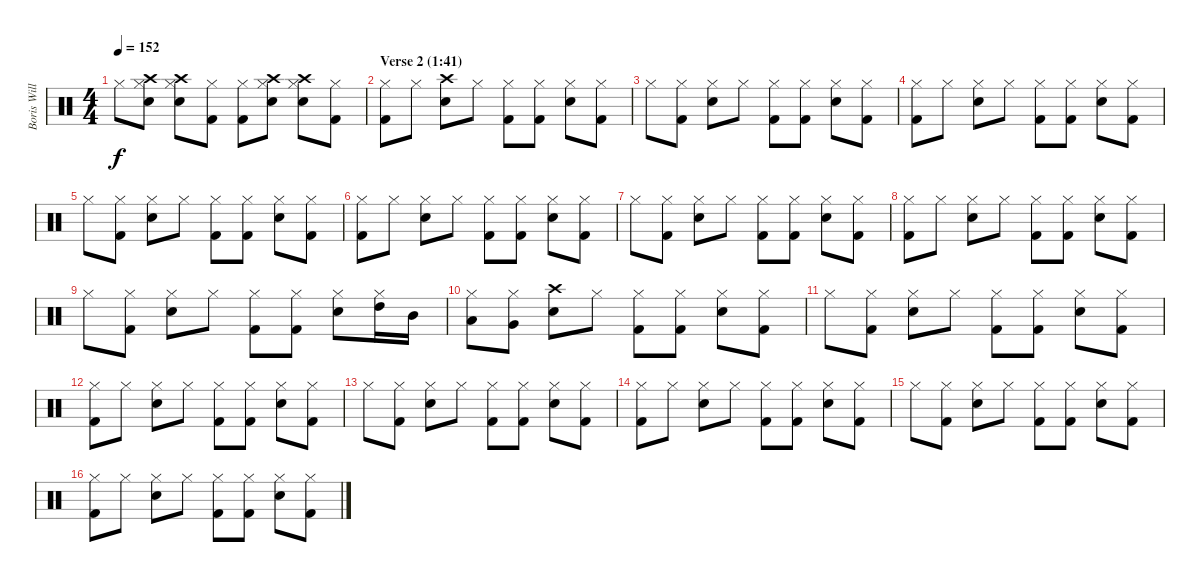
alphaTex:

\track ("Boris Williams (drums)" "Boris Will") {instrument percussion}
\staff {score}
\articulation defaults
\ts (4 4)
\tempo 152
\clef neutral
\ks c "Hi-Hat (closed)".8{dy f}
("Crash high (hit)" "Snare (hit) 2" "Hi-Hat (closed)").8 ("Crash high (hit)" "Snare (hit) 2" "Hi-Hat (closed)").8 ("Kick (hit) 2" "Hi-Hat (closed)").8 ("Kick (hit) 2" "Hi-Hat (closed)").8 ("Crash high (hit)" "Snare (hit) 2" "Hi-Hat (closed)").8 ("Crash high (hit)" "Snare (hit) 2" "Hi-Hat (closed)").8 ("Kick (hit) 2" "Hi-Hat (closed)").8 |
\section ("" "Verse 2 (1:41)")
("Kick (hit) 2" "Hi-Hat (closed)").8 "Hi-Hat (closed)".8 ("Snare (hit) 2" "Crash high (hit)").8 "Hi-Hat (closed)".8 ("Kick (hit) 2" "Hi-Hat (closed)").8 ("Kick (hit) 2" "Hi-Hat (closed)").8 ("Snare (hit) 2" "Hi-Hat (closed)").8 ("Kick (hit) 2" "Hi-Hat (closed)").8 |
"Hi-Hat (closed)".8 ("Kick (hit) 2" "Hi-Hat (closed)").8 ("Snare (hit) 2" "Hi-Hat (closed)").8 "Hi-Hat (closed)".8 ("Kick (hit) 2" "Hi-Hat (closed)").8 ("Kick (hit) 2" "Hi-Hat (closed)").8 ("Snare (hit) 2" "Hi-Hat (closed)").8 ("Kick (hit) 2" "Hi-Hat (closed)").8 |
("Kick (hit) 2" "Hi-Hat (closed)").8 "Hi-Hat (closed)".8 ("Snare (hit) 2" "Hi-Hat (closed)").8 "Hi-Hat (closed)".8 ("Kick (hit) 2" "Hi-Hat (closed)").8 ("Kick (hit) 2" "Hi-Hat (closed)").8 ("Snare (hit) 2" "Hi-Hat (closed)").8 ("Kick (hit) 2" "Hi-Hat (closed)").8 |
"Hi-Hat (closed)".8 ("Kick (hit) 2" "Hi-Hat (closed)").8 ("Snare (hit) 2" "Hi-Hat (closed)").8 "Hi-Hat (closed)".8 ("Kick (hit) 2" "Hi-Hat (closed)").8 ("Kick (hit) 2" "Hi-Hat (closed)").8 ("Snare (hit) 2" "Hi-Hat (closed)").8 ("Kick (hit) 2" "Hi-Hat (closed)").8 |
("Kick (hit) 2" "Hi-Hat (closed)").8 "Hi-Hat (closed)".8 ("Snare (hit) 2" "Hi-Hat (closed)").8 "Hi-Hat (closed)".8 ("Kick (hit) 2" "Hi-Hat (closed)").8 ("Kick (hit) 2" "Hi-Hat (closed)").8 ("Snare (hit) 2" "Hi-Hat (closed)").8 ("Kick (hit) 2" "Hi-Hat (closed)").8 |
"Hi-Hat (closed)".8 ("Kick (hit) 2" "Hi-Hat (closed)").8 ("Snare (hit) 2" "Hi-Hat (closed)").8 "Hi-Hat (closed)".8 ("Kick (hit) 2" "Hi-Hat (closed)").8 ("Kick (hit) 2" "Hi-Hat (closed)").8 ("Snare (hit) 2" "Hi-Hat (closed)").8 ("Kick (hit) 2" "Hi-Hat (closed)").8 |
("Kick (hit) 2" "Hi-Hat (closed)").8 "Hi-Hat (closed)".8 ("Snare (hit) 2" "Hi-Hat (closed)").8 "Hi-Hat (closed)".8 ("Kick (hit) 2" "Hi-Hat (closed)").8 ("Kick (hit) 2" "Hi-Hat (closed)").8 ("Snare (hit) 2" "Hi-Hat (closed)").8 ("Kick (hit) 2" "Hi-Hat (closed)").8 |
"Hi-Hat (closed)".8 ("Kick (hit) 2" "Hi-Hat (closed)").8 ("Snare (hit) 2" "Hi-Hat (closed)").8 "Hi-Hat (closed)".8 ("Kick (hit) 2" "Hi-Hat (closed)").8 ("Kick (hit) 2" "Hi-Hat (closed)").8 ("Snare (hit) 2" "Hi-Hat (closed)").8 ("High Tom (hit)" "Hi-Hat (closed)").16 "Mid Tom (hit)".16 |
("Low Tom (hit)" "Hi-Hat (closed)").8 ("Very Low Tom (hit)" "Hi-Hat (closed)").8 ("Snare (hit) 2" "Crash high (hit)").8 "Hi-Hat (closed)".8 ("Kick (hit) 2" "Hi-Hat (closed)").8 ("Kick (hit) 2" "Hi-Hat (closed)").8 ("Snare (hit) 2" "Hi-Hat (closed)").8 ("Kick (hit) 2" "Hi-Hat (closed)").8 |
"Hi-Hat (closed)".8 ("Kick (hit) 2" "Hi-Hat (closed)").8 ("Snare (hit) 2" "Hi-Hat (closed)").8 "Hi-Hat (closed)".8 ("Kick (hit) 2" "Hi-Hat (closed)").8 ("Kick (hit) 2" "Hi-Hat (closed)").8 ("Snare (hit) 2" "Hi-Hat (closed)").8 ("Kick (hit) 2" "Hi-Hat (closed)").8 |
("Kick (hit) 2" "Hi-Hat (closed)").8 "Hi-Hat (closed)".8 ("Snare (hit) 2" "Hi-Hat (closed)").8 "Hi-Hat (closed)".8 ("Kick (hit) 2" "Hi-Hat (closed)").8 ("Kick (hit) 2" "Hi-Hat (closed)").8 ("Snare (hit) 2" "Hi-Hat (closed)").8 ("Kick (hit) 2" "Hi-Hat (closed)").8 |
"Hi-Hat (closed)".8 ("Kick (hit) 2" "Hi-Hat (closed)").8 ("Snare (hit) 2" "Hi-Hat (closed)").8 "Hi-Hat (closed)".8 ("Kick (hit) 2" "Hi-Hat (closed)").8 ("Kick (hit) 2" "Hi-Hat (closed)").8 ("Snare (hit) 2" "Hi-Hat (closed)").8 ("Kick (hit) 2" "Hi-Hat (closed)").8 |
("Kick (hit) 2" "Hi-Hat (closed)").8 "Hi-Hat (closed)".8 ("Snare (hit) 2" "Hi-Hat (closed)").8 "Hi-Hat (closed)".8 ("Kick (hit) 2" "Hi-Hat (closed)").8 ("Kick (hit) 2" "Hi-Hat (closed)").8 ("Snare (hit) 2" "Hi-Hat (closed)").8 ("Kick (hit) 2" "Hi-Hat (closed)").8 |
"Hi-Hat (closed)".8 ("Kick (hit) 2" "Hi-Hat (closed)").8 ("Snare (hit) 2" "Hi-Hat (closed)").8 "Hi-Hat (closed)".8 ("Kick (hit) 2" "Hi-Hat (closed)").8 ("Kick (hit) 2" "Hi-Hat (closed)").8 ("Snare (hit) 2" "Hi-Hat (closed)").8 ("Kick (hit) 2" "Hi-Hat (closed)").8 |
("Kick (hit) 2" "Hi-Hat (closed)").8 "Hi-Hat (closed)".8 ("Snare (hit) 2" "Hi-Hat (closed)").8 "Hi-Hat (closed)".8 ("Kick (hit) 2" "Hi-Hat (closed)").8 ("Kick (hit) 2" "Hi-Hat (closed)").8 ("Snare (hit) 2" "Hi-Hat (closed)").8 ("Kick (hit) 2" "Hi-Hat (closed)").8
